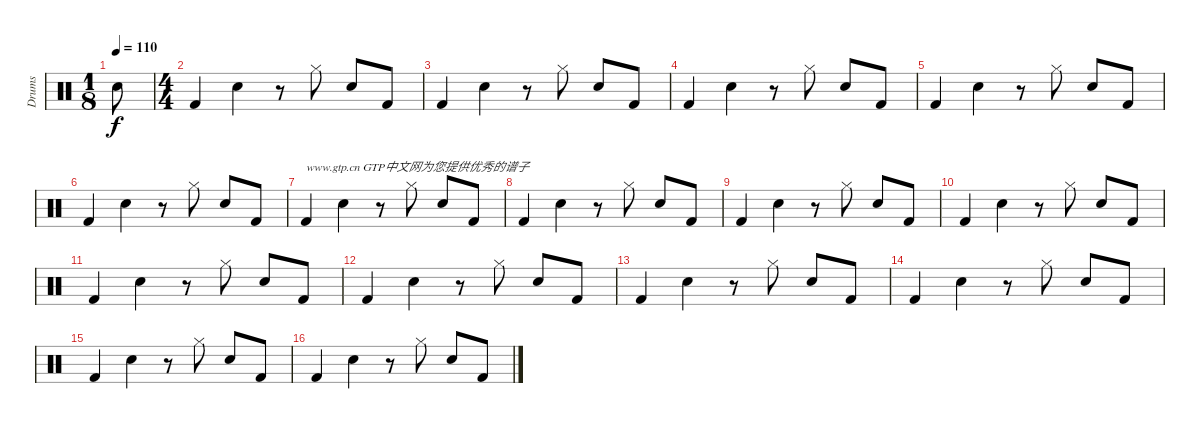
\track ("Drums" "Drums") {instrument percussion}
\staff {score}
\articulation defaults
\ts (1 8)
\tempo 110
\clef neutral
\ks c "Snare (hit) 2".8{dy f}
|
\ts (4 4)
"Kick (hit) 2".4 "Snare (hit) 2".4 r.8 "Hi-Hat (closed)".8 "Snare (hit) 2".8 "Kick (hit) 2".8 |
"Kick (hit) 2".4 "Snare (hit) 2".4 r.8 "Hi-Hat (closed)".8 "Snare (hit) 2".8 "Kick (hit) 2".8 |
"Kick (hit) 2".4 "Snare (hit) 2".4 r.8 "Hi-Hat (closed)".8 "Snare (hit) 2".8 "Kick (hit) 2".8 |
"Kick (hit) 2".4 "Snare (hit) 2".4 r.8 "Hi-Hat (closed)".8 "Snare (hit) 2".8 "Kick (hit) 2".8 |
"Kick (hit) 2".4 "Snare (hit) 2".4 r.8 "Hi-Hat (closed)".8 "Snare (hit) 2".8 "Kick (hit) 2".8 |
"Kick (hit) 2".4{txt "www.gtp.cn GTP中文网为您提供优秀的谱子"} "Snare (hit) 2".4 r.8 "Hi-Hat (closed)".8 "Snare (hit) 2".8 "Kick (hit) 2".8 |
"Kick (hit) 2".4 "Snare (hit) 2".4 r.8 "Hi-Hat (closed)".8 "Snare (hit) 2".8 "Kick (hit) 2".8 |
"Kick (hit) 2".4 "Snare (hit) 2".4 r.8 "Hi-Hat (closed)".8 "Snare (hit) 2".8 "Kick (hit) 2".8 |
"Kick (hit) 2".4 "Snare (hit) 2".4 r.8 "Hi-Hat (closed)".8 "Snare (hit) 2".8 "Kick (hit) 2".8 |
"Kick (hit) 2".4 "Snare (hit) 2".4 r.8 "Hi-Hat (closed)".8 "Snare (hit) 2".8 "Kick (hit) 2".8 |
"Kick (hit) 2".4 "Snare (hit) 2".4 r.8 "Hi-Hat (closed)".8 "Snare (hit) 2".8 "Kick (hit) 2".8 |
"Kick (hit) 2".4 "Snare (hit) 2".4 r.8 "Hi-Hat (closed)".8 "Snare (hit) 2".8 "Kick (hit) 2".8 |
"Kick (hit) 2".4 "Snare (hit) 2".4 r.8 "Hi-Hat (closed)".8 "Snare (hit) 2".8 "Kick (hit) 2".8 |
"Kick (hit) 2".4 "Snare (hit) 2".4 r.8 "Hi-Hat (closed)".8 "Snare (hit) 2".8 "Kick (hit) 2".8 |
"Kick (hit) 2".4 "Snare (hit) 2".4 r.8 "Hi-Hat (closed)".8 "Snare (hit) 2".8 "Kick (hit) 2".8
